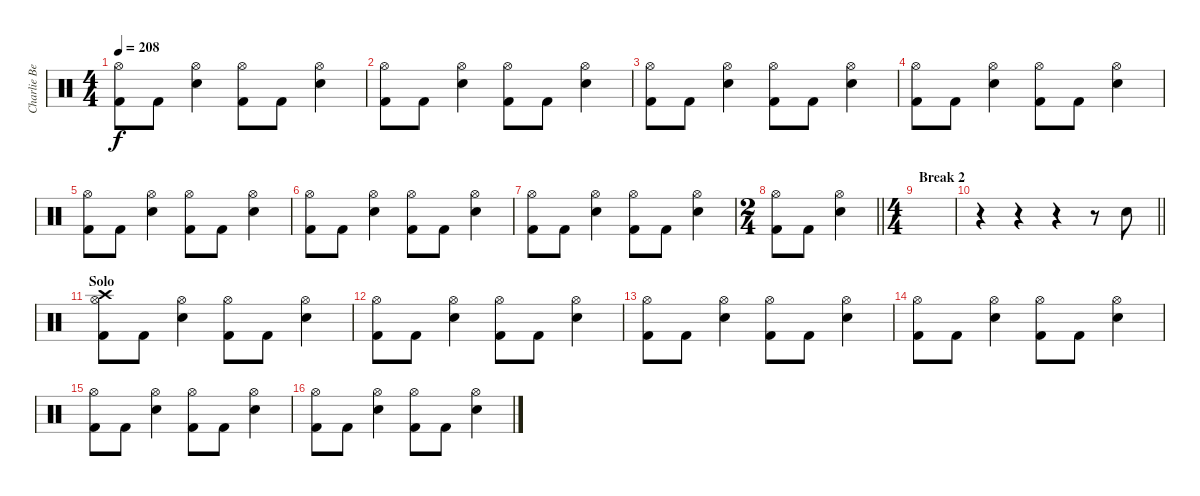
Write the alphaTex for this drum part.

\track ("Charlie Benate" "Charlie Be") {instrument percussion}
\staff {score}
\articulation defaults
\ts (4 4)
\tempo 208
\clef neutral
\ks c
("Hi-Hat (open)" "Kick (hit) 2").8{dy f} "Kick (hit) 2".8 ("Hi-Hat (open)" "Electric Snare (hit)").4 ("Hi-Hat (open)" "Kick (hit) 2").8 "Kick (hit) 2".8 ("Hi-Hat (open)" "Electric Snare (hit)").4 |
("Hi-Hat (open)" "Kick (hit) 2").8 "Kick (hit) 2".8 ("Hi-Hat (open)" "Electric Snare (hit)").4 ("Hi-Hat (open)" "Kick (hit) 2").8 "Kick (hit) 2".8 ("Hi-Hat (open)" "Electric Snare (hit)").4 |
("Hi-Hat (open)" "Kick (hit) 2").8 "Kick (hit) 2".8 ("Hi-Hat (open)" "Electric Snare (hit)").4 ("Hi-Hat (open)" "Kick (hit) 2").8 "Kick (hit) 2".8 ("Hi-Hat (open)" "Electric Snare (hit)").4 |
("Hi-Hat (open)" "Kick (hit) 2").8 "Kick (hit) 2".8 ("Hi-Hat (open)" "Electric Snare (hit)").4 ("Hi-Hat (open)" "Kick (hit) 2").8 "Kick (hit) 2".8 ("Hi-Hat (open)" "Electric Snare (hit)").4 |
("Hi-Hat (open)" "Kick (hit) 2").8 "Kick (hit) 2".8 ("Hi-Hat (open)" "Electric Snare (hit)").4 ("Hi-Hat (open)" "Kick (hit) 2").8 "Kick (hit) 2".8 ("Hi-Hat (open)" "Electric Snare (hit)").4 |
("Hi-Hat (open)" "Kick (hit) 2").8 "Kick (hit) 2".8 ("Hi-Hat (open)" "Electric Snare (hit)").4 ("Hi-Hat (open)" "Kick (hit) 2").8 "Kick (hit) 2".8 ("Hi-Hat (open)" "Electric Snare (hit)").4 |
("Hi-Hat (open)" "Kick (hit) 2").8 "Kick (hit) 2".8 ("Hi-Hat (open)" "Electric Snare (hit)").4 ("Hi-Hat (open)" "Kick (hit) 2").8 "Kick (hit) 2".8 ("Hi-Hat (open)" "Electric Snare (hit)").4 |
\ts (2 4)
\barLineRight lightlight
("Hi-Hat (open)" "Kick (hit) 2").8 "Kick (hit) 2".8 ("Hi-Hat (open)" "Electric Snare (hit)").4 |
\ts (4 4)
\section ("" "Break 2")
|
\barLineRight lightlight
r.4 r.4 r.4 r.8 "Electric Snare (hit)".8 |
\section ("" "Solo")
("Hi-Hat (open)" "Crash high (hit)" "Kick (hit) 2").8 "Kick (hit) 2".8 ("Hi-Hat (open)" "Electric Snare (hit)").4 ("Hi-Hat (open)" "Kick (hit) 2").8 "Kick (hit) 2".8 ("Hi-Hat (open)" "Electric Snare (hit)").4 |
("Hi-Hat (open)" "Kick (hit) 2").8 "Kick (hit) 2".8 ("Hi-Hat (open)" "Electric Snare (hit)").4 ("Hi-Hat (open)" "Kick (hit) 2").8 "Kick (hit) 2".8 ("Hi-Hat (open)" "Electric Snare (hit)").4 |
("Hi-Hat (open)" "Kick (hit) 2").8 "Kick (hit) 2".8 ("Hi-Hat (open)" "Electric Snare (hit)").4 ("Hi-Hat (open)" "Kick (hit) 2").8 "Kick (hit) 2".8 ("Hi-Hat (open)" "Electric Snare (hit)").4 |
("Hi-Hat (open)" "Kick (hit) 2").8 "Kick (hit) 2".8 ("Hi-Hat (open)" "Electric Snare (hit)").4 ("Hi-Hat (open)" "Kick (hit) 2").8 "Kick (hit) 2".8 ("Hi-Hat (open)" "Electric Snare (hit)").4 |
("Hi-Hat (open)" "Kick (hit) 2").8 "Kick (hit) 2".8 ("Hi-Hat (open)" "Electric Snare (hit)").4 ("Hi-Hat (open)" "Kick (hit) 2").8 "Kick (hit) 2".8 ("Hi-Hat (open)" "Electric Snare (hit)").4 |
("Hi-Hat (open)" "Kick (hit) 2").8 "Kick (hit) 2".8 ("Hi-Hat (open)" "Electric Snare (hit)").4 ("Hi-Hat (open)" "Kick (hit) 2").8 "Kick (hit) 2".8 ("Hi-Hat (open)" "Electric Snare (hit)").4
